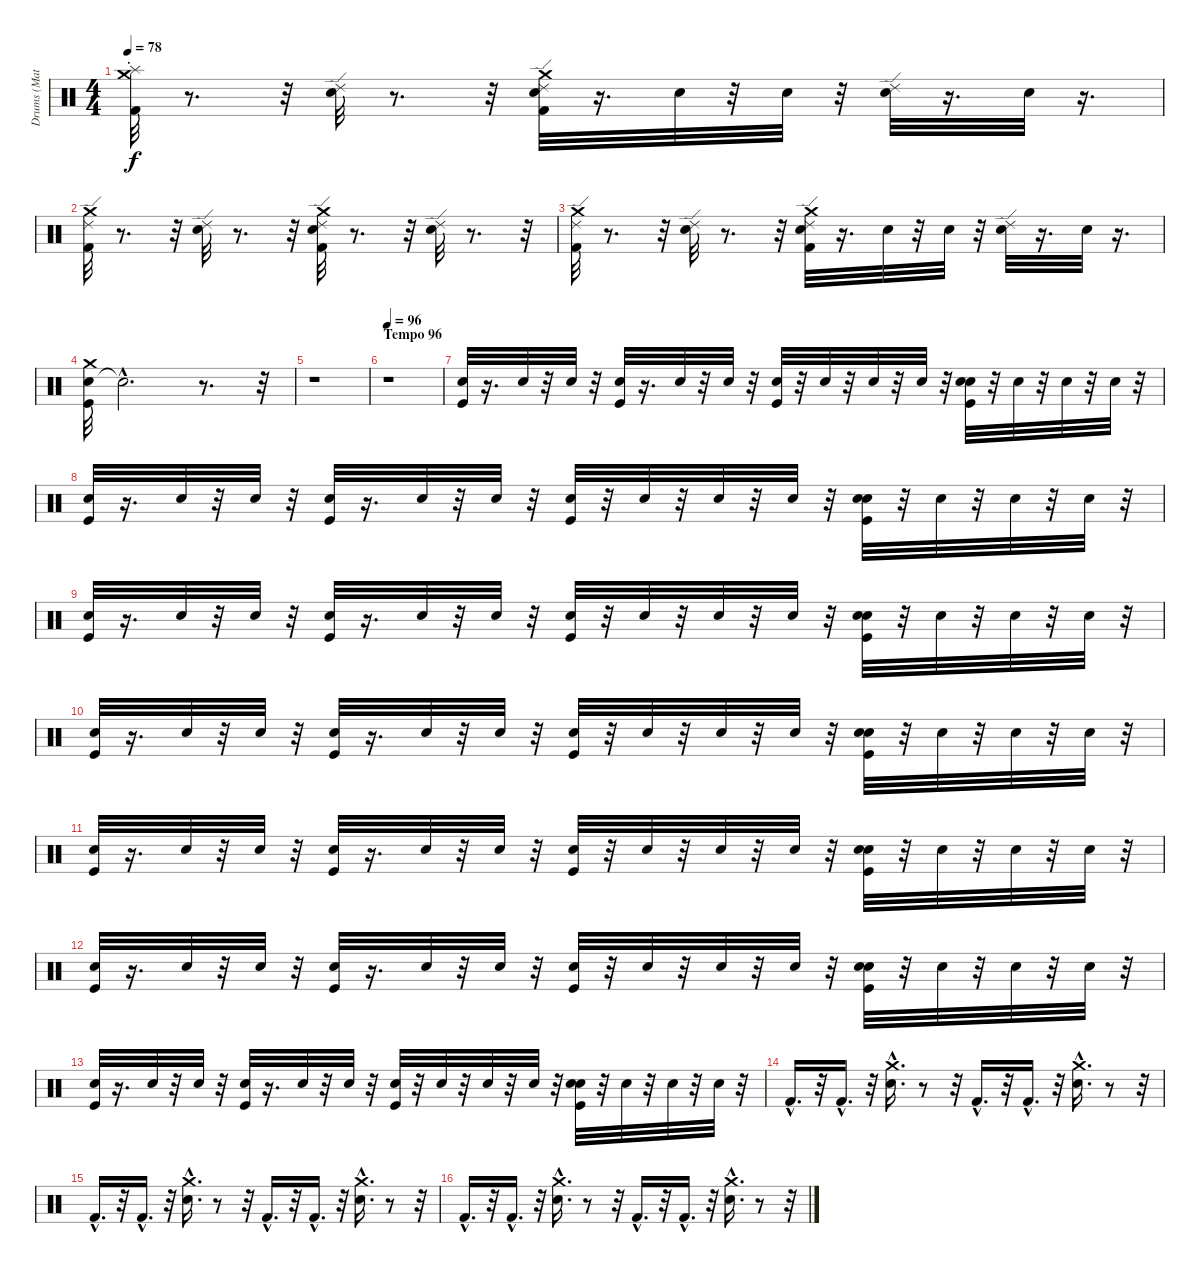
\track ("Drums (Matt)" "Drums (Mat") {instrument percussion}
\staff {score}
\articulation defaults
\ts (4 4)
\tempo 78
\clef neutral
\ks c
("Crash medium (hit)" "Splash (choke)" "Kick (hit) 2").32{dy f} r.8{d} r.32 ("Ride (edge) 2" "Snare (hit) 2").32 r.8{d} r.32 ("Ride (edge) 2" "Snare (hit) 2" "Kick (hit) 2" "Crash medium (hit)").32 r.16{d} "Snare (hit) 2".32 r.32 "Snare (hit) 2".32 r.32 ("Ride (edge) 2" "Snare (hit) 2").32 r.16{d} "Snare (hit) 2".32 r.16{d} |
("Crash medium (hit)" "Ride (edge) 2" "Kick (hit) 2").32 r.8{d} r.32 ("Ride (edge) 2" "Snare (hit) 2").32 r.8{d} r.32 ("Ride (edge) 2" "Snare (hit) 2" "Crash medium (hit)" "Kick (hit) 2").32 r.8{d} r.32 ("Ride (edge) 2" "Snare (hit) 2").32 r.8{d} r.32 |
("Crash medium (hit)" "Ride (edge) 2" "Kick (hit) 2").32 r.8{d} r.32 ("Ride (edge) 2" "Snare (hit) 2").32 r.8{d} r.32 ("Ride (edge) 2" "Snare (hit) 2" "Kick (hit) 2" "Crash medium (hit)").32 r.16{d} "Snare (hit) 2".32 r.32 "Snare (hit) 2".32 r.32 ("Ride (edge) 2" "Snare (hit) 2").32 r.16{d} "Snare (hit) 2".32 r.16{d} |
("Snare (hit) 2" "Kick (hit)" "Crash medium (hit)").32 "Snare (hit)"{hac t}.2{d} r.8{d} r.32 |
r.1 |
\section ("" "Tempo 96")
\tempo 96
r.1 |
("Snare (hit) 2" "Kick (hit)").32 r.16{d} "Snare (hit) 2".32 r.32 "Snare (hit) 2".32 r.32 ("Snare (hit) 2" "Kick (hit)").32 r.16{d} "Snare (hit) 2".32 r.32 "Snare (hit) 2".32 r.32 ("Snare (hit) 2" "Kick (hit)").32 r.32 "Snare (hit) 2".32 r.32 "Snare (hit) 2".32 r.32 "Snare (hit) 2".32 r.32 ("Electric Snare (hit)" "Snare (hit) 2" "Kick (hit)").32 r.32 "Snare (hit) 2".32 r.32 "Snare (hit) 2".32 r.32 "Snare (hit) 2".32 r.32 |
("Snare (hit) 2" "Kick (hit)").32 r.16{d} "Snare (hit) 2".32 r.32 "Snare (hit) 2".32 r.32 ("Snare (hit) 2" "Kick (hit)").32 r.16{d} "Snare (hit) 2".32 r.32 "Snare (hit) 2".32 r.32 ("Snare (hit) 2" "Kick (hit)").32 r.32 "Snare (hit) 2".32 r.32 "Snare (hit) 2".32 r.32 "Snare (hit) 2".32 r.32 ("Electric Snare (hit)" "Snare (hit) 2" "Kick (hit)").32 r.32 "Snare (hit) 2".32 r.32 "Snare (hit) 2".32 r.32 "Snare (hit) 2".32 r.32 |
("Snare (hit) 2" "Kick (hit)").32 r.16{d} "Snare (hit) 2".32 r.32 "Snare (hit) 2".32 r.32 ("Snare (hit) 2" "Kick (hit)").32 r.16{d} "Snare (hit) 2".32 r.32 "Snare (hit) 2".32 r.32 ("Snare (hit) 2" "Kick (hit)").32 r.32 "Snare (hit) 2".32 r.32 "Snare (hit) 2".32 r.32 "Snare (hit) 2".32 r.32 ("Electric Snare (hit)" "Snare (hit) 2" "Kick (hit)").32 r.32 "Snare (hit) 2".32 r.32 "Snare (hit) 2".32 r.32 "Snare (hit) 2".32 r.32 |
("Snare (hit) 2" "Kick (hit)").32 r.16{d} "Snare (hit) 2".32 r.32 "Snare (hit) 2".32 r.32 ("Snare (hit) 2" "Kick (hit)").32 r.16{d} "Snare (hit) 2".32 r.32 "Snare (hit) 2".32 r.32 ("Snare (hit) 2" "Kick (hit)").32 r.32 "Snare (hit) 2".32 r.32 "Snare (hit) 2".32 r.32 "Snare (hit) 2".32 r.32 ("Electric Snare (hit)" "Snare (hit) 2" "Kick (hit)").32 r.32 "Snare (hit) 2".32 r.32 "Snare (hit) 2".32 r.32 "Snare (hit) 2".32 r.32 |
("Snare (hit) 2" "Kick (hit)").32 r.16{d} "Snare (hit) 2".32 r.32 "Snare (hit) 2".32 r.32 ("Snare (hit) 2" "Kick (hit)").32 r.16{d} "Snare (hit) 2".32 r.32 "Snare (hit) 2".32 r.32 ("Snare (hit) 2" "Kick (hit)").32 r.32 "Snare (hit) 2".32 r.32 "Snare (hit) 2".32 r.32 "Snare (hit) 2".32 r.32 ("Electric Snare (hit)" "Snare (hit) 2" "Kick (hit)").32 r.32 "Snare (hit) 2".32 r.32 "Snare (hit) 2".32 r.32 "Snare (hit) 2".32 r.32 |
("Snare (hit) 2" "Kick (hit)").32 r.16{d} "Snare (hit) 2".32 r.32 "Snare (hit) 2".32 r.32 ("Snare (hit) 2" "Kick (hit)").32 r.16{d} "Snare (hit) 2".32 r.32 "Snare (hit) 2".32 r.32 ("Snare (hit) 2" "Kick (hit)").32 r.32 "Snare (hit) 2".32 r.32 "Snare (hit) 2".32 r.32 "Snare (hit) 2".32 r.32 ("Electric Snare (hit)" "Snare (hit) 2" "Kick (hit)").32 r.32 "Snare (hit) 2".32 r.32 "Snare (hit) 2".32 r.32 "Snare (hit) 2".32 r.32 |
("Snare (hit) 2" "Kick (hit)").32 r.16{d} "Snare (hit) 2".32 r.32 "Snare (hit) 2".32 r.32 ("Snare (hit) 2" "Kick (hit)").32 r.16{d} "Snare (hit) 2".32 r.32 "Snare (hit) 2".32 r.32 ("Snare (hit) 2" "Kick (hit)").32 r.32 "Snare (hit) 2".32 r.32 "Snare (hit) 2".32 r.32 "Snare (hit) 2".32 r.32 ("Electric Snare (hit)" "Snare (hit) 2" "Kick (hit)").32 r.32 "Snare (hit) 2".32 r.32 "Snare (hit) 2".32 r.32 "Snare (hit) 2".32 r.32 |
"Kick (hit) 2"{hac}.16{d} r.32 "Kick (hit) 2"{hac}.16{d} r.32 ("Snare (hit) 2"{hac} "Crash medium (hit)"{hac}).16{d} r.8 r.32 "Kick (hit) 2"{hac}.16{d} r.32 "Kick (hit) 2"{hac}.16{d} r.32 ("Snare (hit) 2"{hac} "Crash medium (hit)"{hac}).16{d} r.8 r.32 |
"Kick (hit) 2"{hac}.16{d} r.32 "Kick (hit) 2"{hac}.16{d} r.32 ("Snare (hit) 2"{hac} "Crash medium (hit)"{hac}).16{d} r.8 r.32 "Kick (hit) 2"{hac}.16{d} r.32 "Kick (hit) 2"{hac}.16{d} r.32 ("Snare (hit) 2"{hac} "Crash medium (hit)"{hac}).16{d} r.8 r.32 |
"Kick (hit) 2"{hac}.16{d} r.32 "Kick (hit) 2"{hac}.16{d} r.32 ("Snare (hit) 2"{hac} "Crash medium (hit)"{hac}).16{d} r.8 r.32 "Kick (hit) 2"{hac}.16{d} r.32 "Kick (hit) 2"{hac}.16{d} r.32 ("Snare (hit) 2"{hac} "Crash medium (hit)"{hac}).16{d} r.8 r.32
